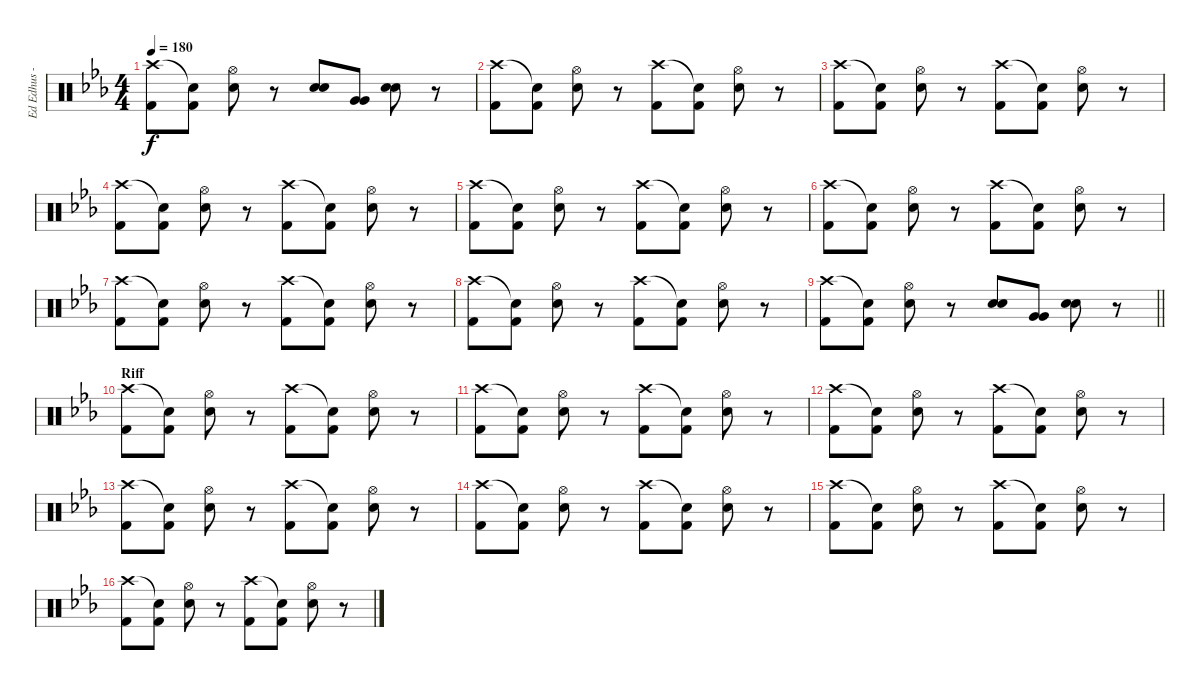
\track ("Ed Edhus - Drums" "Ed Edhus -") {instrument percussion bank 127}
\staff {score}
\articulation defaults
\ts (4 4)
\tempo 180
\clef neutral
\ks eb
("Crash high (hit)" "Kick (hit) 2").8{dy f} ("Snare (hit)"{t} "Kick (hit) 2").8 ("Hi-Hat (open)" "Snare (hit) 2").8 r.8 ("Snare (hit) 2" "Snare (hit) 2").8 ("Very Low Tom (hit)" "Very Low Tom (hit)").8 ("Snare (hit) 2" "Snare (hit) 2").8 r.8 |
("Crash high (hit)" "Kick (hit) 2").8 ("Snare (hit)"{t} "Kick (hit) 2").8 ("Hi-Hat (open)" "Snare (hit) 2").8 r.8 ("Crash high (hit)" "Kick (hit) 2").8 ("Snare (hit)"{t} "Kick (hit) 2").8 ("Hi-Hat (open)" "Snare (hit) 2").8 r.8 |
("Crash high (hit)" "Kick (hit) 2").8 ("Snare (hit)"{t} "Kick (hit) 2").8 ("Hi-Hat (open)" "Snare (hit) 2").8 r.8 ("Crash high (hit)" "Kick (hit) 2").8 ("Snare (hit)"{t} "Kick (hit) 2").8 ("Hi-Hat (open)" "Snare (hit) 2").8 r.8 |
("Crash high (hit)" "Kick (hit) 2").8 ("Snare (hit)"{t} "Kick (hit) 2").8 ("Hi-Hat (open)" "Snare (hit) 2").8 r.8 ("Crash high (hit)" "Kick (hit) 2").8 ("Snare (hit)"{t} "Kick (hit) 2").8 ("Hi-Hat (open)" "Snare (hit) 2").8 r.8 |
("Crash high (hit)" "Kick (hit) 2").8 ("Snare (hit)"{t} "Kick (hit) 2").8 ("Hi-Hat (open)" "Snare (hit) 2").8 r.8 ("Crash high (hit)" "Kick (hit) 2").8 ("Snare (hit)"{t} "Kick (hit) 2").8 ("Hi-Hat (open)" "Snare (hit) 2").8 r.8 |
("Crash high (hit)" "Kick (hit) 2").8 ("Snare (hit)"{t} "Kick (hit) 2").8 ("Hi-Hat (open)" "Snare (hit) 2").8 r.8 ("Crash high (hit)" "Kick (hit) 2").8 ("Snare (hit)"{t} "Kick (hit) 2").8 ("Hi-Hat (open)" "Snare (hit) 2").8 r.8 |
("Crash high (hit)" "Kick (hit) 2").8 ("Snare (hit)"{t} "Kick (hit) 2").8 ("Hi-Hat (open)" "Snare (hit) 2").8 r.8 ("Crash high (hit)" "Kick (hit) 2").8 ("Snare (hit)"{t} "Kick (hit) 2").8 ("Hi-Hat (open)" "Snare (hit) 2").8 r.8 |
("Crash high (hit)" "Kick (hit) 2").8 ("Snare (hit)"{t} "Kick (hit) 2").8 ("Hi-Hat (open)" "Snare (hit) 2").8 r.8 ("Crash high (hit)" "Kick (hit) 2").8 ("Snare (hit)"{t} "Kick (hit) 2").8 ("Hi-Hat (open)" "Snare (hit) 2").8 r.8 |
\barLineRight lightlight
("Crash high (hit)" "Kick (hit) 2").8 ("Snare (hit)"{t} "Kick (hit) 2").8 ("Hi-Hat (open)" "Snare (hit) 2").8 r.8 ("Snare (hit) 2" "Snare (hit) 2").8 ("Very Low Tom (hit)" "Very Low Tom (hit)").8 ("Snare (hit) 2" "Snare (hit) 2").8 r.8 |
\section ("" "Riff")
("Crash high (hit)" "Kick (hit) 2").8 ("Snare (hit)"{t} "Kick (hit) 2").8 ("Hi-Hat (open)" "Snare (hit) 2").8 r.8 ("Crash high (hit)" "Kick (hit) 2").8 ("Snare (hit)"{t} "Kick (hit) 2").8 ("Hi-Hat (open)" "Snare (hit) 2").8 r.8 |
("Crash high (hit)" "Kick (hit) 2").8 ("Snare (hit)"{t} "Kick (hit) 2").8 ("Hi-Hat (open)" "Snare (hit) 2").8 r.8 ("Crash high (hit)" "Kick (hit) 2").8 ("Snare (hit)"{t} "Kick (hit) 2").8 ("Hi-Hat (open)" "Snare (hit) 2").8 r.8 |
("Crash high (hit)" "Kick (hit) 2").8 ("Snare (hit)"{t} "Kick (hit) 2").8 ("Hi-Hat (open)" "Snare (hit) 2").8 r.8 ("Crash high (hit)" "Kick (hit) 2").8 ("Snare (hit)"{t} "Kick (hit) 2").8 ("Hi-Hat (open)" "Snare (hit) 2").8 r.8 |
("Crash high (hit)" "Kick (hit) 2").8 ("Snare (hit)"{t} "Kick (hit) 2").8 ("Hi-Hat (open)" "Snare (hit) 2").8 r.8 ("Crash high (hit)" "Kick (hit) 2").8 ("Snare (hit)"{t} "Kick (hit) 2").8 ("Hi-Hat (open)" "Snare (hit) 2").8 r.8 |
("Crash high (hit)" "Kick (hit) 2").8 ("Snare (hit)"{t} "Kick (hit) 2").8 ("Hi-Hat (open)" "Snare (hit) 2").8 r.8 ("Crash high (hit)" "Kick (hit) 2").8 ("Snare (hit)"{t} "Kick (hit) 2").8 ("Hi-Hat (open)" "Snare (hit) 2").8 r.8 |
("Crash high (hit)" "Kick (hit) 2").8 ("Snare (hit)"{t} "Kick (hit) 2").8 ("Hi-Hat (open)" "Snare (hit) 2").8 r.8 ("Crash high (hit)" "Kick (hit) 2").8 ("Snare (hit)"{t} "Kick (hit) 2").8 ("Hi-Hat (open)" "Snare (hit) 2").8 r.8 |
("Crash high (hit)" "Kick (hit) 2").8 ("Snare (hit)"{t} "Kick (hit) 2").8 ("Hi-Hat (open)" "Snare (hit) 2").8 r.8 ("Crash high (hit)" "Kick (hit) 2").8 ("Snare (hit)"{t} "Kick (hit) 2").8 ("Hi-Hat (open)" "Snare (hit) 2").8 r.8
